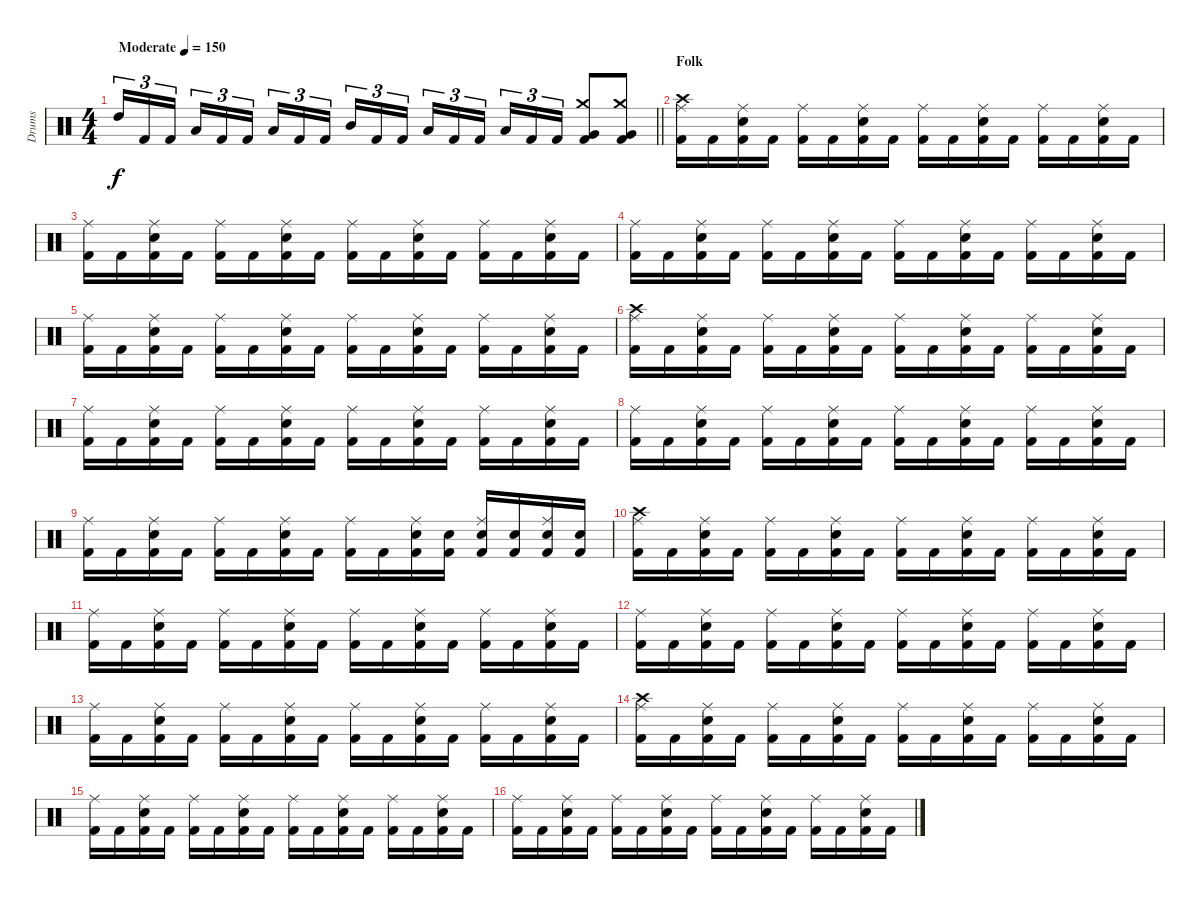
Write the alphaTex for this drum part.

\track ("Drums" "Drums") {instrument percussion}
\staff {score}
\articulation defaults
\ts (4 4)
\tempo (150 "Moderate")
\clef neutral
\barLineRight lightlight
\ks c "High Tom (hit)".16{tu (3 2) dy f} "Kick (hit) 2".16{tu (3 2)} "Kick (hit) 2".16{tu (3 2) beam splitsecondary} "Low Tom (hit)".16{tu (3 2)} "Kick (hit) 2".16{tu (3 2)} "Kick (hit) 2".16{tu (3 2)} "Low Floor Tom (hit)".16{tu (3 2)} "Kick (hit) 2".16{tu (3 2)} "Kick (hit) 2".16{tu (3 2) beam splitsecondary} "Mid Tom (hit)".16{tu (3 2)} "Kick (hit) 2".16{tu (3 2)} "Kick (hit) 2".16{tu (3 2)} "Low Tom (hit)".16{tu (3 2)} "Kick (hit) 2".16{tu (3 2)} "Kick (hit) 2".16{tu (3 2) beam splitsecondary} "Low Floor Tom (hit)".16{tu (3 2)} "Kick (hit) 2".16{tu (3 2)} "Kick (hit) 2".16{tu (3 2)}
("Crash medium (hit)" "Very Low Tom (hit)" "Kick (hit) 2").8 ("Crash medium (hit)" "Very Low Tom (hit)" "Kick (hit) 2").8 |
\section ("" "Folk")
("Crash high (hit)" "Ride (middle)" "Kick (hit) 2").16 "Kick (hit) 2".16 ("Ride (middle)" "Snare (hit) 2" "Kick (hit) 2").16 "Kick (hit) 2".16 ("Ride (middle)" "Kick (hit) 2").16 "Kick (hit) 2".16 ("Ride (middle)" "Snare (hit) 2" "Kick (hit) 2").16 "Kick (hit) 2".16 ("Ride (middle)" "Kick (hit) 2").16 "Kick (hit) 2".16 ("Ride (middle)" "Snare (hit) 2" "Kick (hit) 2").16 "Kick (hit) 2".16 ("Ride (middle)" "Kick (hit) 2").16 "Kick (hit) 2".16 ("Ride (middle)" "Snare (hit) 2" "Kick (hit) 2").16 "Kick (hit) 2".16 |
("Ride (middle)" "Kick (hit) 2").16 "Kick (hit) 2".16 ("Ride (middle)" "Snare (hit) 2" "Kick (hit) 2").16 "Kick (hit) 2".16 ("Ride (middle)" "Kick (hit) 2").16 "Kick (hit) 2".16 ("Ride (middle)" "Snare (hit) 2" "Kick (hit) 2").16 "Kick (hit) 2".16 ("Ride (middle)" "Kick (hit) 2").16 "Kick (hit) 2".16 ("Ride (middle)" "Snare (hit) 2" "Kick (hit) 2").16 "Kick (hit) 2".16 ("Ride (middle)" "Kick (hit) 2").16 "Kick (hit) 2".16 ("Ride (middle)" "Snare (hit) 2" "Kick (hit) 2").16 "Kick (hit) 2".16 |
("Ride (middle)" "Kick (hit) 2").16 "Kick (hit) 2".16 ("Ride (middle)" "Snare (hit) 2" "Kick (hit) 2").16 "Kick (hit) 2".16 ("Ride (middle)" "Kick (hit) 2").16 "Kick (hit) 2".16 ("Ride (middle)" "Snare (hit) 2" "Kick (hit) 2").16 "Kick (hit) 2".16 ("Ride (middle)" "Kick (hit) 2").16 "Kick (hit) 2".16 ("Ride (middle)" "Snare (hit) 2" "Kick (hit) 2").16 "Kick (hit) 2".16 ("Ride (middle)" "Kick (hit) 2").16 "Kick (hit) 2".16 ("Ride (middle)" "Snare (hit) 2" "Kick (hit) 2").16 "Kick (hit) 2".16 |
("Ride (middle)" "Kick (hit) 2").16 "Kick (hit) 2".16 ("Ride (middle)" "Snare (hit) 2" "Kick (hit) 2").16 "Kick (hit) 2".16 ("Ride (middle)" "Kick (hit) 2").16 "Kick (hit) 2".16 ("Ride (middle)" "Snare (hit) 2" "Kick (hit) 2").16 "Kick (hit) 2".16 ("Ride (middle)" "Kick (hit) 2").16 "Kick (hit) 2".16 ("Ride (middle)" "Snare (hit) 2" "Kick (hit) 2").16 "Kick (hit) 2".16 ("Ride (middle)" "Kick (hit) 2").16 "Kick (hit) 2".16 ("Ride (middle)" "Snare (hit) 2" "Kick (hit) 2").16 "Kick (hit) 2".16 |
("Crash high (hit)" "Ride (middle)" "Kick (hit) 2").16 "Kick (hit) 2".16 ("Ride (middle)" "Snare (hit) 2" "Kick (hit) 2").16 "Kick (hit) 2".16 ("Ride (middle)" "Kick (hit) 2").16 "Kick (hit) 2".16 ("Ride (middle)" "Snare (hit) 2" "Kick (hit) 2").16 "Kick (hit) 2".16 ("Ride (middle)" "Kick (hit) 2").16 "Kick (hit) 2".16 ("Ride (middle)" "Snare (hit) 2" "Kick (hit) 2").16 "Kick (hit) 2".16 ("Ride (middle)" "Kick (hit) 2").16 "Kick (hit) 2".16 ("Ride (middle)" "Snare (hit) 2" "Kick (hit) 2").16 "Kick (hit) 2".16 |
("Ride (middle)" "Kick (hit) 2").16 "Kick (hit) 2".16 ("Ride (middle)" "Snare (hit) 2" "Kick (hit) 2").16 "Kick (hit) 2".16 ("Ride (middle)" "Kick (hit) 2").16 "Kick (hit) 2".16 ("Ride (middle)" "Snare (hit) 2" "Kick (hit) 2").16 "Kick (hit) 2".16 ("Ride (middle)" "Kick (hit) 2").16 "Kick (hit) 2".16 ("Ride (middle)" "Snare (hit) 2" "Kick (hit) 2").16 "Kick (hit) 2".16 ("Ride (middle)" "Kick (hit) 2").16 "Kick (hit) 2".16 ("Ride (middle)" "Snare (hit) 2" "Kick (hit) 2").16 "Kick (hit) 2".16 |
("Ride (middle)" "Kick (hit) 2").16 "Kick (hit) 2".16 ("Ride (middle)" "Snare (hit) 2" "Kick (hit) 2").16 "Kick (hit) 2".16 ("Ride (middle)" "Kick (hit) 2").16 "Kick (hit) 2".16 ("Ride (middle)" "Snare (hit) 2" "Kick (hit) 2").16 "Kick (hit) 2".16 ("Ride (middle)" "Kick (hit) 2").16 "Kick (hit) 2".16 ("Ride (middle)" "Snare (hit) 2" "Kick (hit) 2").16 "Kick (hit) 2".16 ("Ride (middle)" "Kick (hit) 2").16 "Kick (hit) 2".16 ("Ride (middle)" "Snare (hit) 2" "Kick (hit) 2").16 "Kick (hit) 2".16 |
("Ride (middle)" "Kick (hit) 2").16 "Kick (hit) 2".16 ("Ride (middle)" "Snare (hit) 2" "Kick (hit) 2").16 "Kick (hit) 2".16 ("Ride (middle)" "Kick (hit) 2").16 "Kick (hit) 2".16 ("Ride (middle)" "Snare (hit) 2" "Kick (hit) 2").16 "Kick (hit) 2".16 ("Ride (middle)" "Kick (hit) 2").16 "Kick (hit) 2".16 ("Ride (middle)" "Snare (hit) 2" "Kick (hit) 2").16 ("Snare (hit) 2" "Kick (hit) 2").16 ("Ride (middle)" "Snare (hit) 2" "Kick (hit) 2").16 ("Snare (hit) 2" "Kick (hit) 2").16 ("Ride (middle)" "Snare (hit) 2" "Kick (hit) 2").16 ("Snare (hit) 2" "Kick (hit) 2").16 |
("Crash high (hit)" "Ride (middle)" "Kick (hit) 2").16 "Kick (hit) 2".16 ("Ride (middle)" "Snare (hit) 2" "Kick (hit) 2").16 "Kick (hit) 2".16 ("Ride (middle)" "Kick (hit) 2").16 "Kick (hit) 2".16 ("Ride (middle)" "Snare (hit) 2" "Kick (hit) 2").16 "Kick (hit) 2".16 ("Ride (middle)" "Kick (hit) 2").16 "Kick (hit) 2".16 ("Ride (middle)" "Snare (hit) 2" "Kick (hit) 2").16 "Kick (hit) 2".16 ("Ride (middle)" "Kick (hit) 2").16 "Kick (hit) 2".16 ("Ride (middle)" "Snare (hit) 2" "Kick (hit) 2").16 "Kick (hit) 2".16 |
("Ride (middle)" "Kick (hit) 2").16 "Kick (hit) 2".16 ("Ride (middle)" "Snare (hit) 2" "Kick (hit) 2").16 "Kick (hit) 2".16 ("Ride (middle)" "Kick (hit) 2").16 "Kick (hit) 2".16 ("Ride (middle)" "Snare (hit) 2" "Kick (hit) 2").16 "Kick (hit) 2".16 ("Ride (middle)" "Kick (hit) 2").16 "Kick (hit) 2".16 ("Ride (middle)" "Snare (hit) 2" "Kick (hit) 2").16 "Kick (hit) 2".16 ("Ride (middle)" "Kick (hit) 2").16 "Kick (hit) 2".16 ("Ride (middle)" "Snare (hit) 2" "Kick (hit) 2").16 "Kick (hit) 2".16 |
("Ride (middle)" "Kick (hit) 2").16 "Kick (hit) 2".16 ("Ride (middle)" "Snare (hit) 2" "Kick (hit) 2").16 "Kick (hit) 2".16 ("Ride (middle)" "Kick (hit) 2").16 "Kick (hit) 2".16 ("Ride (middle)" "Snare (hit) 2" "Kick (hit) 2").16 "Kick (hit) 2".16 ("Ride (middle)" "Kick (hit) 2").16 "Kick (hit) 2".16 ("Ride (middle)" "Snare (hit) 2" "Kick (hit) 2").16 "Kick (hit) 2".16 ("Ride (middle)" "Kick (hit) 2").16 "Kick (hit) 2".16 ("Ride (middle)" "Snare (hit) 2" "Kick (hit) 2").16 "Kick (hit) 2".16 |
("Ride (middle)" "Kick (hit) 2").16 "Kick (hit) 2".16 ("Ride (middle)" "Snare (hit) 2" "Kick (hit) 2").16 "Kick (hit) 2".16 ("Ride (middle)" "Kick (hit) 2").16 "Kick (hit) 2".16 ("Ride (middle)" "Snare (hit) 2" "Kick (hit) 2").16 "Kick (hit) 2".16 ("Ride (middle)" "Kick (hit) 2").16 "Kick (hit) 2".16 ("Ride (middle)" "Snare (hit) 2" "Kick (hit) 2").16 "Kick (hit) 2".16 ("Ride (middle)" "Kick (hit) 2").16 "Kick (hit) 2".16 ("Ride (middle)" "Snare (hit) 2" "Kick (hit) 2").16 "Kick (hit) 2".16 |
("Crash high (hit)" "Ride (middle)" "Kick (hit) 2").16 "Kick (hit) 2".16 ("Ride (middle)" "Snare (hit) 2" "Kick (hit) 2").16 "Kick (hit) 2".16 ("Ride (middle)" "Kick (hit) 2").16 "Kick (hit) 2".16 ("Ride (middle)" "Snare (hit) 2" "Kick (hit) 2").16 "Kick (hit) 2".16 ("Ride (middle)" "Kick (hit) 2").16 "Kick (hit) 2".16 ("Ride (middle)" "Snare (hit) 2" "Kick (hit) 2").16 "Kick (hit) 2".16 ("Ride (middle)" "Kick (hit) 2").16 "Kick (hit) 2".16 ("Ride (middle)" "Snare (hit) 2" "Kick (hit) 2").16 "Kick (hit) 2".16 |
("Ride (middle)" "Kick (hit) 2").16 "Kick (hit) 2".16 ("Ride (middle)" "Snare (hit) 2" "Kick (hit) 2").16 "Kick (hit) 2".16 ("Ride (middle)" "Kick (hit) 2").16 "Kick (hit) 2".16 ("Ride (middle)" "Snare (hit) 2" "Kick (hit) 2").16 "Kick (hit) 2".16 ("Ride (middle)" "Kick (hit) 2").16 "Kick (hit) 2".16 ("Ride (middle)" "Snare (hit) 2" "Kick (hit) 2").16 "Kick (hit) 2".16 ("Ride (middle)" "Kick (hit) 2").16 "Kick (hit) 2".16 ("Ride (middle)" "Snare (hit) 2" "Kick (hit) 2").16 "Kick (hit) 2".16 |
("Ride (middle)" "Kick (hit) 2").16 "Kick (hit) 2".16 ("Ride (middle)" "Snare (hit) 2" "Kick (hit) 2").16 "Kick (hit) 2".16 ("Ride (middle)" "Kick (hit) 2").16 "Kick (hit) 2".16 ("Ride (middle)" "Snare (hit) 2" "Kick (hit) 2").16 "Kick (hit) 2".16 ("Ride (middle)" "Kick (hit) 2").16 "Kick (hit) 2".16 ("Ride (middle)" "Snare (hit) 2" "Kick (hit) 2").16 "Kick (hit) 2".16 ("Ride (middle)" "Kick (hit) 2").16 "Kick (hit) 2".16 ("Ride (middle)" "Snare (hit) 2" "Kick (hit) 2").16 "Kick (hit) 2".16
